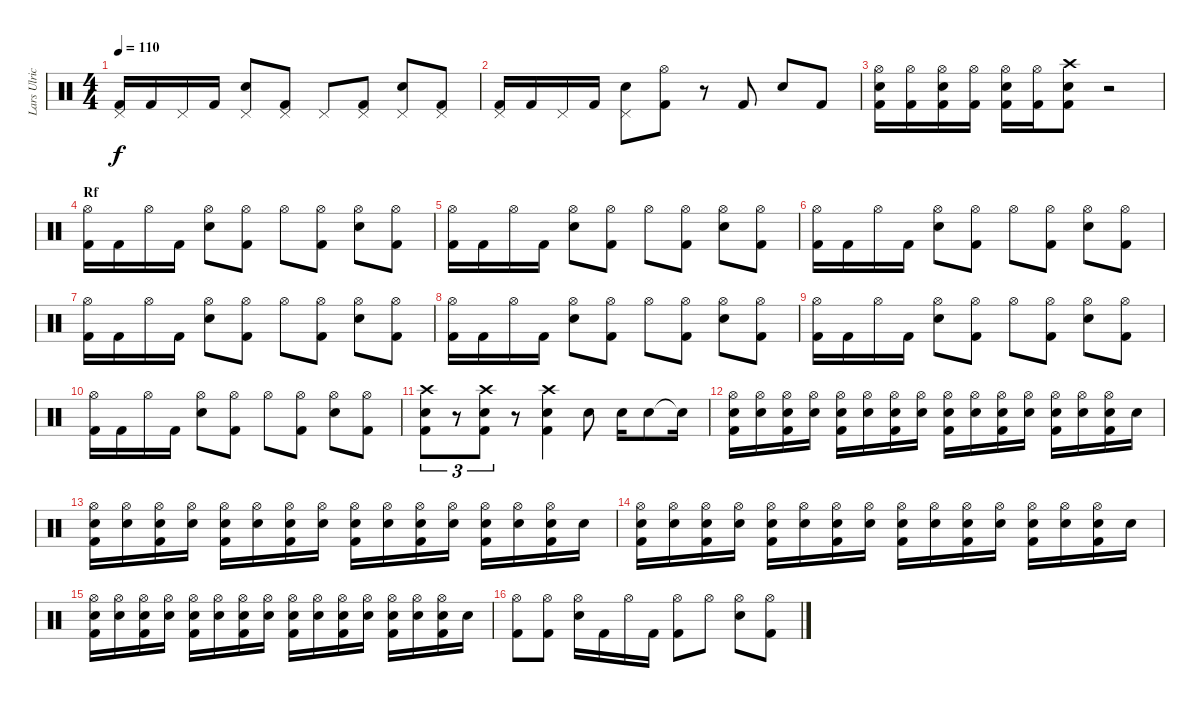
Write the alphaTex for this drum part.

\track ("Lars Ulrich" "Lars Ulric") {instrument percussion}
\staff {score}
\articulation defaults
\ts (4 4)
\tempo 110
\clef neutral
\ks c
("Pedal Hi-Hat (hit)" "Kick (hit) 2").16{dy f} "Kick (hit) 2".16 "Pedal Hi-Hat (hit)".16 "Kick (hit) 2".16 ("Pedal Hi-Hat (hit)" "Electric Snare (hit)").8 ("Pedal Hi-Hat (hit)" "Kick (hit) 2").8 "Pedal Hi-Hat (hit)".8 ("Pedal Hi-Hat (hit)" "Kick (hit) 2").8 ("Pedal Hi-Hat (hit)" "Electric Snare (hit)").8 ("Pedal Hi-Hat (hit)" "Kick (hit) 2").8 |
("Pedal Hi-Hat (hit)" "Kick (hit) 2").16 "Kick (hit) 2".16 "Pedal Hi-Hat (hit)".16 "Kick (hit) 2".16 ("Pedal Hi-Hat (hit)" "Electric Snare (hit)").8 ("Hi-Hat (open)" "Kick (hit) 2").8 r.8 "Kick (hit) 2".8 "Electric Snare (hit)".8 "Kick (hit) 2".8 |
("Hi-Hat (open)" "Electric Snare (hit)" "Kick (hit) 2").16 ("Hi-Hat (open)" "Kick (hit) 2").16 ("Hi-Hat (open)" "Electric Snare (hit)" "Kick (hit) 2").16 ("Hi-Hat (open)" "Kick (hit) 2").16 ("Hi-Hat (open)" "Electric Snare (hit)" "Kick (hit) 2").16 ("Hi-Hat (open)" "Kick (hit) 2").16 ("Crash high (hit)" "Electric Snare (hit)" "Kick (hit) 2").8 r.2 |
\section ("" "Rf")
("Hi-Hat (open)" "Kick (hit) 2").16 "Kick (hit) 2".16 "Hi-Hat (open)".16 "Kick (hit) 2".16 ("Hi-Hat (open)" "Electric Snare (hit)").8 ("Hi-Hat (open)" "Kick (hit) 2").8 "Hi-Hat (open)".8 ("Hi-Hat (open)" "Kick (hit) 2").8 ("Hi-Hat (open)" "Electric Snare (hit)").8 ("Hi-Hat (open)" "Kick (hit) 2").8 |
("Hi-Hat (open)" "Kick (hit) 2").16 "Kick (hit) 2".16 "Hi-Hat (open)".16 "Kick (hit) 2".16 ("Hi-Hat (open)" "Electric Snare (hit)").8 ("Hi-Hat (open)" "Kick (hit) 2").8 "Hi-Hat (open)".8 ("Hi-Hat (open)" "Kick (hit) 2").8 ("Hi-Hat (open)" "Electric Snare (hit)").8 ("Hi-Hat (open)" "Kick (hit) 2").8 |
("Hi-Hat (open)" "Kick (hit) 2").16 "Kick (hit) 2".16 "Hi-Hat (open)".16 "Kick (hit) 2".16 ("Hi-Hat (open)" "Electric Snare (hit)").8 ("Hi-Hat (open)" "Kick (hit) 2").8 "Hi-Hat (open)".8 ("Hi-Hat (open)" "Kick (hit) 2").8 ("Hi-Hat (open)" "Electric Snare (hit)").8 ("Hi-Hat (open)" "Kick (hit) 2").8 |
("Hi-Hat (open)" "Kick (hit) 2").16 "Kick (hit) 2".16 "Hi-Hat (open)".16 "Kick (hit) 2".16 ("Hi-Hat (open)" "Electric Snare (hit)").8 ("Hi-Hat (open)" "Kick (hit) 2").8 "Hi-Hat (open)".8 ("Hi-Hat (open)" "Kick (hit) 2").8 ("Hi-Hat (open)" "Electric Snare (hit)").8 ("Hi-Hat (open)" "Kick (hit) 2").8 |
("Hi-Hat (open)" "Kick (hit) 2").16 "Kick (hit) 2".16 "Hi-Hat (open)".16 "Kick (hit) 2".16 ("Hi-Hat (open)" "Electric Snare (hit)").8 ("Hi-Hat (open)" "Kick (hit) 2").8 "Hi-Hat (open)".8 ("Hi-Hat (open)" "Kick (hit) 2").8 ("Hi-Hat (open)" "Electric Snare (hit)").8 ("Hi-Hat (open)" "Kick (hit) 2").8 |
("Hi-Hat (open)" "Kick (hit) 2").16 "Kick (hit) 2".16 "Hi-Hat (open)".16 "Kick (hit) 2".16 ("Hi-Hat (open)" "Electric Snare (hit)").8 ("Hi-Hat (open)" "Kick (hit) 2").8 "Hi-Hat (open)".8 ("Hi-Hat (open)" "Kick (hit) 2").8 ("Hi-Hat (open)" "Electric Snare (hit)").8 ("Hi-Hat (open)" "Kick (hit) 2").8 |
("Hi-Hat (open)" "Kick (hit) 2").16 "Kick (hit) 2".16 "Hi-Hat (open)".16 "Kick (hit) 2".16 ("Hi-Hat (open)" "Electric Snare (hit)").8 ("Hi-Hat (open)" "Kick (hit) 2").8 "Hi-Hat (open)".8 ("Hi-Hat (open)" "Kick (hit) 2").8 ("Hi-Hat (open)" "Electric Snare (hit)").8 ("Hi-Hat (open)" "Kick (hit) 2").8 |
("Crash high (hit)" "Electric Snare (hit)" "Kick (hit) 2").8{tu (3 2)} r.8{tu (3 2)} ("Crash high (hit)" "Electric Snare (hit)" "Kick (hit) 2").8{tu (3 2)} r.8 ("Crash high (hit)" "Electric Snare (hit)" "Kick (hit) 2").4 "Electric Snare (hit)".8 "Electric Snare (hit)".16 "Electric Snare (hit)".8 "Snare (hit)"{t}.16 |
("Hi-Hat (open)" "Electric Snare (hit)" "Kick (hit) 2").16 ("Hi-Hat (open)" "Electric Snare (hit)").16 ("Hi-Hat (open)" "Electric Snare (hit)" "Kick (hit) 2").16 ("Hi-Hat (open)" "Electric Snare (hit)").16 ("Hi-Hat (open)" "Electric Snare (hit)" "Kick (hit) 2").16 ("Hi-Hat (open)" "Electric Snare (hit)").16 ("Hi-Hat (open)" "Electric Snare (hit)" "Kick (hit) 2").16 ("Hi-Hat (open)" "Electric Snare (hit)").16 ("Hi-Hat (open)" "Electric Snare (hit)" "Kick (hit) 2").16 ("Hi-Hat (open)" "Electric Snare (hit)").16 ("Hi-Hat (open)" "Electric Snare (hit)" "Kick (hit) 2").16 ("Hi-Hat (open)" "Electric Snare (hit)").16 ("Hi-Hat (open)" "Electric Snare (hit)" "Kick (hit) 2").16 ("Hi-Hat (open)" "Electric Snare (hit)").16 ("Hi-Hat (open)" "Electric Snare (hit)" "Kick (hit) 2").16 "Electric Snare (hit)".16 |
("Hi-Hat (open)" "Electric Snare (hit)" "Kick (hit) 2").16 ("Hi-Hat (open)" "Electric Snare (hit)").16 ("Hi-Hat (open)" "Electric Snare (hit)" "Kick (hit) 2").16 ("Hi-Hat (open)" "Electric Snare (hit)").16 ("Hi-Hat (open)" "Electric Snare (hit)" "Kick (hit) 2").16 ("Hi-Hat (open)" "Electric Snare (hit)").16 ("Hi-Hat (open)" "Electric Snare (hit)" "Kick (hit) 2").16 ("Hi-Hat (open)" "Electric Snare (hit)").16 ("Hi-Hat (open)" "Electric Snare (hit)" "Kick (hit) 2").16 ("Hi-Hat (open)" "Electric Snare (hit)").16 ("Hi-Hat (open)" "Electric Snare (hit)" "Kick (hit) 2").16 ("Hi-Hat (open)" "Electric Snare (hit)").16 ("Hi-Hat (open)" "Electric Snare (hit)" "Kick (hit) 2").16 ("Hi-Hat (open)" "Electric Snare (hit)").16 ("Hi-Hat (open)" "Electric Snare (hit)" "Kick (hit) 2").16 "Electric Snare (hit)".16 |
("Hi-Hat (open)" "Electric Snare (hit)" "Kick (hit) 2").16 ("Hi-Hat (open)" "Electric Snare (hit)").16 ("Hi-Hat (open)" "Electric Snare (hit)" "Kick (hit) 2").16 ("Hi-Hat (open)" "Electric Snare (hit)").16 ("Hi-Hat (open)" "Electric Snare (hit)" "Kick (hit) 2").16 ("Hi-Hat (open)" "Electric Snare (hit)").16 ("Hi-Hat (open)" "Electric Snare (hit)" "Kick (hit) 2").16 ("Hi-Hat (open)" "Electric Snare (hit)").16 ("Hi-Hat (open)" "Electric Snare (hit)" "Kick (hit) 2").16 ("Hi-Hat (open)" "Electric Snare (hit)").16 ("Hi-Hat (open)" "Electric Snare (hit)" "Kick (hit) 2").16 ("Hi-Hat (open)" "Electric Snare (hit)").16 ("Hi-Hat (open)" "Electric Snare (hit)" "Kick (hit) 2").16 ("Hi-Hat (open)" "Electric Snare (hit)").16 ("Hi-Hat (open)" "Electric Snare (hit)" "Kick (hit) 2").16 "Electric Snare (hit)".16 |
("Hi-Hat (open)" "Electric Snare (hit)" "Kick (hit) 2").16 ("Hi-Hat (open)" "Electric Snare (hit)").16 ("Hi-Hat (open)" "Electric Snare (hit)" "Kick (hit) 2").16 ("Hi-Hat (open)" "Electric Snare (hit)").16 ("Hi-Hat (open)" "Electric Snare (hit)" "Kick (hit) 2").16 ("Hi-Hat (open)" "Electric Snare (hit)").16 ("Hi-Hat (open)" "Electric Snare (hit)" "Kick (hit) 2").16 ("Hi-Hat (open)" "Electric Snare (hit)").16 ("Hi-Hat (open)" "Electric Snare (hit)" "Kick (hit) 2").16 ("Hi-Hat (open)" "Electric Snare (hit)").16 ("Hi-Hat (open)" "Electric Snare (hit)" "Kick (hit) 2").16 ("Hi-Hat (open)" "Electric Snare (hit)").16 ("Hi-Hat (open)" "Electric Snare (hit)" "Kick (hit) 2").16 ("Hi-Hat (open)" "Electric Snare (hit)").16 ("Hi-Hat (open)" "Electric Snare (hit)" "Kick (hit) 2").16 "Electric Snare (hit)".16 |
("Hi-Hat (open)" "Kick (hit) 2").8 ("Hi-Hat (open)" "Kick (hit) 2").8 ("Hi-Hat (open)" "Electric Snare (hit)").16 "Kick (hit) 2".16 "Hi-Hat (open)".16 "Kick (hit) 2".16 ("Hi-Hat (open)" "Kick (hit) 2").8 "Hi-Hat (open)".8 ("Hi-Hat (open)" "Electric Snare (hit)").8 ("Hi-Hat (open)" "Kick (hit) 2").8
